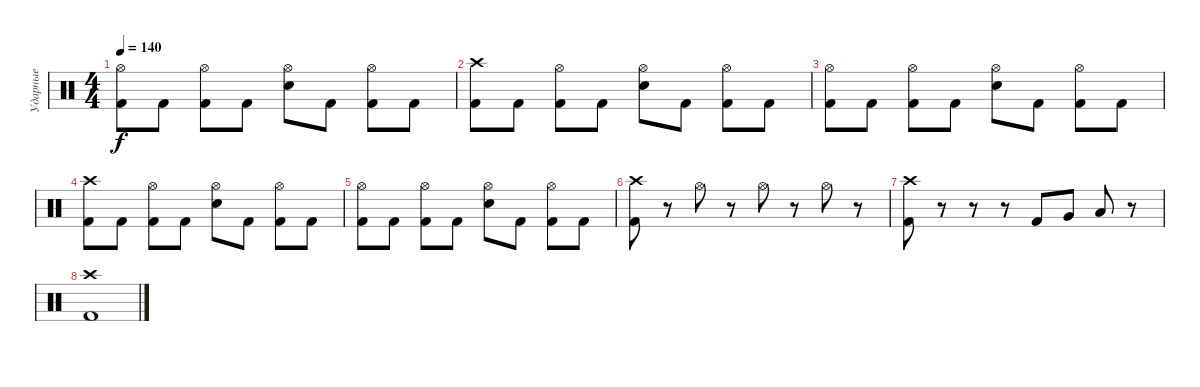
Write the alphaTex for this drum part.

\track ("Ударные" "Ударные") {instrument percussion}
\staff {score}
\articulation defaults
\ts (4 4)
\tempo 140
\clef neutral
\ks c
("Hi-Hat (open)" "Kick (hit) 2").8{dy f} "Kick (hit) 2".8 ("Hi-Hat (open)" "Kick (hit) 2").8 "Kick (hit) 2".8 ("Hi-Hat (open)" "Electric Snare (hit)").8 "Kick (hit) 2".8 ("Hi-Hat (open)" "Kick (hit) 2").8 "Kick (hit) 2".8 |
("Crash high (hit)" "Kick (hit) 2").8 "Kick (hit) 2".8 ("Hi-Hat (open)" "Kick (hit) 2").8 "Kick (hit) 2".8 ("Hi-Hat (open)" "Electric Snare (hit)").8 "Kick (hit) 2".8 ("Hi-Hat (open)" "Kick (hit) 2").8 "Kick (hit) 2".8 |
("Hi-Hat (open)" "Kick (hit) 2").8 "Kick (hit) 2".8 ("Hi-Hat (open)" "Kick (hit) 2").8 "Kick (hit) 2".8 ("Hi-Hat (open)" "Electric Snare (hit)").8 "Kick (hit) 2".8 ("Hi-Hat (open)" "Kick (hit) 2").8 "Kick (hit) 2".8 |
("Crash high (hit)" "Kick (hit) 2").8 "Kick (hit) 2".8 ("Hi-Hat (open)" "Kick (hit) 2").8 "Kick (hit) 2".8 ("Hi-Hat (open)" "Electric Snare (hit)").8 "Kick (hit) 2".8 ("Hi-Hat (open)" "Kick (hit) 2").8 "Kick (hit) 2".8 |
("Hi-Hat (open)" "Kick (hit) 2").8 "Kick (hit) 2".8 ("Hi-Hat (open)" "Kick (hit) 2").8 "Kick (hit) 2".8 ("Hi-Hat (open)" "Electric Snare (hit)").8 "Kick (hit) 2".8 ("Hi-Hat (open)" "Kick (hit) 2").8 "Kick (hit) 2".8 |
("Crash high (hit)" "Kick (hit) 2").8 r.8 "Hi-Hat (open)".8 r.8 "Hi-Hat (open)".8 r.8 "Hi-Hat (open)".8 r.8 |
("Crash high (hit)" "Kick (hit) 2").8 r.8 r.8 r.8 "Kick (hit) 2".8 "Very Low Tom (hit)".8 "Low Floor Tom (hit)".8 r.8 |
("Crash high (hit)" "Kick (hit) 2").1
